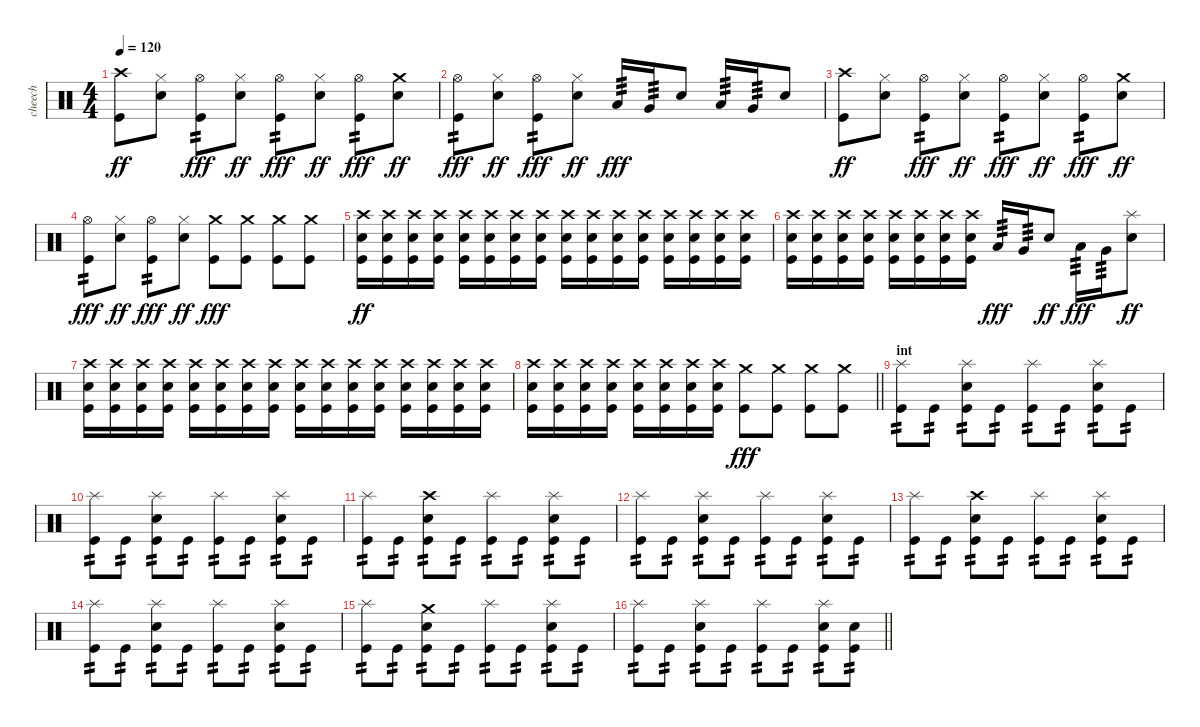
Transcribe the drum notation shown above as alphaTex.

\track ("cheech" "cheech") {instrument percussion}
\staff {score}
\articulation defaults
\ts (4 4)
\tempo 120
\clef neutral
\ks c
("Crash high (hit)" "Kick (hit)").8{dy ff} ("Hi-Hat (closed)" "Electric Snare (hit)").8 ("Hi-Hat (open)" "Kick (hit)").8{tp 2 dy fff} ("Hi-Hat (closed)" "Electric Snare (hit)").8{dy ff} ("Hi-Hat (open)" "Kick (hit)").8{tp 2 dy fff} ("Hi-Hat (closed)" "Electric Snare (hit)").8{dy ff} ("Hi-Hat (open)" "Kick (hit)").8{tp 2 dy fff} ("Crash medium (hit)" "Electric Snare (hit)").8{dy ff} |
("Hi-Hat (open)" "Kick (hit)").8{tp 2 dy fff} ("Hi-Hat (closed)" "Electric Snare (hit)").8{dy ff} ("Hi-Hat (open)" "Kick (hit)").8{tp 2 dy fff} ("Hi-Hat (closed)" "Electric Snare (hit)").8{dy ff} "Low Tom (hit)".16{tp 3 dy fff} "Very Low Tom (hit)".16{tp 3} "Electric Snare (hit)".8 "Low Tom (hit)".16{tp 3} "Very Low Tom (hit)".16{tp 3} "Electric Snare (hit)".8 |
("Crash high (hit)" "Kick (hit)").8{dy ff} ("Hi-Hat (closed)" "Electric Snare (hit)").8 ("Hi-Hat (open)" "Kick (hit)").8{tp 2 dy fff} ("Hi-Hat (closed)" "Electric Snare (hit)").8{dy ff} ("Hi-Hat (open)" "Kick (hit)").8{tp 2 dy fff} ("Hi-Hat (closed)" "Electric Snare (hit)").8{dy ff} ("Hi-Hat (open)" "Kick (hit)").8{tp 2 dy fff} ("Crash medium (hit)" "Electric Snare (hit)").8{dy ff} |
("Hi-Hat (open)" "Kick (hit)").8{tp 2 dy fff} ("Hi-Hat (closed)" "Electric Snare (hit)").8{dy ff} ("Hi-Hat (open)" "Kick (hit)").8{tp 2 dy fff} ("Hi-Hat (closed)" "Electric Snare (hit)").8{dy ff} ("Crash medium (hit)" "Kick (hit)").8{dy fff} ("Crash medium (hit)" "Kick (hit)").8 ("Crash medium (hit)" "Kick (hit)").8 ("Crash medium (hit)" "Kick (hit)").8 |
("Crash high (hit)" "Electric Snare (hit)" "Kick (hit)").16{dy ff} ("Crash high (hit)" "Electric Snare (hit)" "Kick (hit)").16 ("Crash high (hit)" "Electric Snare (hit)" "Kick (hit)").16 ("Crash high (hit)" "Electric Snare (hit)" "Kick (hit)").16 ("Crash high (hit)" "Electric Snare (hit)" "Kick (hit)").16 ("Crash high (hit)" "Electric Snare (hit)" "Kick (hit)").16 ("Crash high (hit)" "Electric Snare (hit)" "Kick (hit)").16 ("Crash high (hit)" "Electric Snare (hit)" "Kick (hit)").16 ("Crash high (hit)" "Electric Snare (hit)" "Kick (hit)").16 ("Crash high (hit)" "Electric Snare (hit)" "Kick (hit)").16 ("Crash high (hit)" "Electric Snare (hit)" "Kick (hit)").16 ("Crash high (hit)" "Electric Snare (hit)" "Kick (hit)").16 ("Crash high (hit)" "Electric Snare (hit)" "Kick (hit)").16 ("Crash high (hit)" "Electric Snare (hit)" "Kick (hit)").16 ("Crash high (hit)" "Electric Snare (hit)" "Kick (hit)").16 ("Crash high (hit)" "Electric Snare (hit)" "Kick (hit)").16 |
("Crash high (hit)" "Electric Snare (hit)" "Kick (hit)").16 ("Crash high (hit)" "Electric Snare (hit)" "Kick (hit)").16 ("Crash high (hit)" "Electric Snare (hit)" "Kick (hit)").16 ("Crash high (hit)" "Electric Snare (hit)" "Kick (hit)").16 ("Crash high (hit)" "Electric Snare (hit)" "Kick (hit)").16 ("Crash high (hit)" "Electric Snare (hit)" "Kick (hit)").16 ("Crash high (hit)" "Electric Snare (hit)" "Kick (hit)").16 ("Crash high (hit)" "Electric Snare (hit)" "Kick (hit)").16 "Low Tom (hit)".16{tp 3 dy fff} "Very Low Tom (hit)".16{tp 3} "Electric Snare (hit)".8{dy ff} "Low Tom (hit)".16{tp 3 dy fff} "Very Low Tom (hit)".16{tp 3} ("Splash (hit)" "Electric Snare (hit)").8{dy ff} |
("Crash high (hit)" "Electric Snare (hit)" "Kick (hit)").16 ("Crash high (hit)" "Electric Snare (hit)" "Kick (hit)").16 ("Crash high (hit)" "Electric Snare (hit)" "Kick (hit)").16 ("Crash high (hit)" "Electric Snare (hit)" "Kick (hit)").16 ("Crash high (hit)" "Electric Snare (hit)" "Kick (hit)").16 ("Crash high (hit)" "Electric Snare (hit)" "Kick (hit)").16 ("Crash high (hit)" "Electric Snare (hit)" "Kick (hit)").16 ("Crash high (hit)" "Electric Snare (hit)" "Kick (hit)").16 ("Crash high (hit)" "Electric Snare (hit)" "Kick (hit)").16 ("Crash high (hit)" "Electric Snare (hit)" "Kick (hit)").16 ("Crash high (hit)" "Electric Snare (hit)" "Kick (hit)").16 ("Crash high (hit)" "Electric Snare (hit)" "Kick (hit)").16 ("Crash high (hit)" "Electric Snare (hit)" "Kick (hit)").16 ("Crash high (hit)" "Electric Snare (hit)" "Kick (hit)").16 ("Crash high (hit)" "Electric Snare (hit)" "Kick (hit)").16 ("Crash high (hit)" "Electric Snare (hit)" "Kick (hit)").16 |
\barLineRight lightlight
("Crash high (hit)" "Electric Snare (hit)" "Kick (hit)").16 ("Crash high (hit)" "Electric Snare (hit)" "Kick (hit)").16 ("Crash high (hit)" "Electric Snare (hit)" "Kick (hit)").16 ("Crash high (hit)" "Electric Snare (hit)" "Kick (hit)").16 ("Crash high (hit)" "Electric Snare (hit)" "Kick (hit)").16 ("Crash high (hit)" "Electric Snare (hit)" "Kick (hit)").16 ("Crash high (hit)" "Electric Snare (hit)" "Kick (hit)").16 ("Crash high (hit)" "Electric Snare (hit)" "Kick (hit)").16 ("Crash medium (hit)" "Kick (hit)").8{dy fff} ("Crash medium (hit)" "Kick (hit)").8 ("Crash medium (hit)" "Kick (hit)").8 ("Crash medium (hit)" "Kick (hit)").8 |
\section ("" "int")
("Splash (hit)" "Kick (hit)").8{tp 2} "Kick (hit)".8{tp 2} ("Splash (hit)" "Electric Snare (hit)" "Kick (hit)").8{tp 2} "Kick (hit)".8{tp 2} ("Splash (hit)" "Kick (hit)").8{tp 2} "Kick (hit)".8{tp 2} ("Splash (hit)" "Electric Snare (hit)" "Kick (hit)").8{tp 2} "Kick (hit)".8{tp 2} |
("Splash (hit)" "Kick (hit)").8{tp 2} "Kick (hit)".8{tp 2} ("Splash (hit)" "Electric Snare (hit)" "Kick (hit)").8{tp 2} "Kick (hit)".8{tp 2} ("Splash (hit)" "Kick (hit)").8{tp 2} "Kick (hit)".8{tp 2} ("Splash (hit)" "Electric Snare (hit)" "Kick (hit)").8{tp 2} "Kick (hit)".8{tp 2} |
("Splash (hit)" "Kick (hit)").8{tp 2} "Kick (hit)".8{tp 2} ("Crash high (hit)" "Electric Snare (hit)" "Kick (hit)").8{tp 2} "Kick (hit)".8{tp 2} ("Splash (hit)" "Kick (hit)").8{tp 2} "Kick (hit)".8{tp 2} ("Splash (hit)" "Electric Snare (hit)" "Kick (hit)").8{tp 2} "Kick (hit)".8{tp 2} |
("Splash (hit)" "Kick (hit)").8{tp 2} "Kick (hit)".8{tp 2} ("Splash (hit)" "Electric Snare (hit)" "Kick (hit)").8{tp 2} "Kick (hit)".8{tp 2} ("Splash (hit)" "Kick (hit)").8{tp 2} "Kick (hit)".8{tp 2} ("Splash (hit)" "Electric Snare (hit)" "Kick (hit)").8{tp 2} "Kick (hit)".8{tp 2} |
("Splash (hit)" "Kick (hit)").8{tp 2} "Kick (hit)".8{tp 2} ("Crash high (hit)" "Electric Snare (hit)" "Kick (hit)").8{tp 2} "Kick (hit)".8{tp 2} ("Splash (hit)" "Kick (hit)").8{tp 2} "Kick (hit)".8{tp 2} ("Splash (hit)" "Electric Snare (hit)" "Kick (hit)").8{tp 2} "Kick (hit)".8{tp 2} |
("Splash (hit)" "Kick (hit)").8{tp 2} "Kick (hit)".8{tp 2} ("Splash (hit)" "Electric Snare (hit)" "Kick (hit)").8{tp 2} "Kick (hit)".8{tp 2} ("Splash (hit)" "Kick (hit)").8{tp 2} "Kick (hit)".8{tp 2} ("Splash (hit)" "Electric Snare (hit)" "Kick (hit)").8{tp 2} "Kick (hit)".8{tp 2} |
("Splash (hit)" "Kick (hit)").8{tp 2} "Kick (hit)".8{tp 2} ("Crash medium (hit)" "Electric Snare (hit)" "Kick (hit)").8{tp 2} "Kick (hit)".8{tp 2} ("Splash (hit)" "Kick (hit)").8{tp 2} "Kick (hit)".8{tp 2} ("Splash (hit)" "Electric Snare (hit)" "Kick (hit)").8{tp 2} "Kick (hit)".8{tp 2} |
\barLineRight lightlight
("Splash (hit)" "Kick (hit)").8{tp 2} "Kick (hit)".8{tp 2} ("Splash (hit)" "Electric Snare (hit)" "Kick (hit)").8{tp 2} "Kick (hit)".8{tp 2} ("Splash (hit)" "Kick (hit)").8{tp 2} "Kick (hit)".8{tp 2} ("Splash (hit)" "Electric Snare (hit)" "Kick (hit)").8{tp 2} ("Electric Snare (hit)" "Kick (hit)").8{tp 2}
